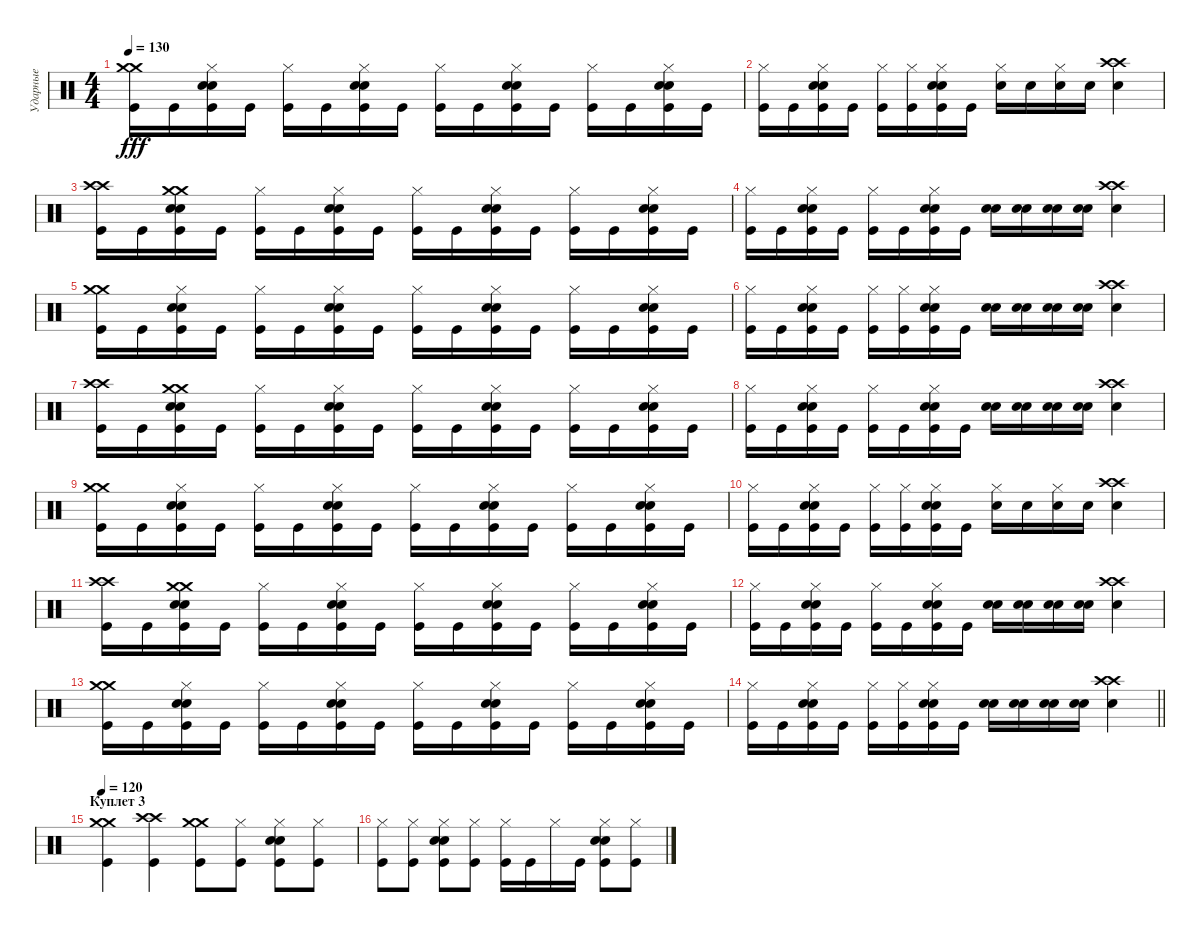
\track ("Ударные" "Ударные") {instrument percussion}
\staff {score}
\articulation defaults
\ts (4 4)
\tempo 130
\clef neutral
\ks c
("Crash medium (hit)" "Crash medium (hit)" "Kick (hit)").16{dy fff} "Kick (hit)".16 ("Snare (hit) 2" "Snare (hit) 2" "Hi-Hat (closed)" "Kick (hit)").16 "Kick (hit)".16 ("Hi-Hat (closed)" "Kick (hit)").16 "Kick (hit)".16 ("Hi-Hat (closed)" "Snare (hit) 2" "Snare (hit) 2" "Kick (hit)").16 "Kick (hit)".16 ("Hi-Hat (closed)" "Kick (hit)").16 "Kick (hit)".16 ("Hi-Hat (closed)" "Snare (hit) 2" "Snare (hit) 2" "Kick (hit)").16 "Kick (hit)".16 ("Hi-Hat (closed)" "Kick (hit)").16 "Kick (hit)".16 ("Hi-Hat (closed)" "Snare (hit) 2" "Snare (hit) 2" "Kick (hit)").16 "Kick (hit)".16 |
("Hi-Hat (closed)" "Kick (hit)").16 "Kick (hit)".16 ("Hi-Hat (closed)" "Snare (hit) 2" "Snare (hit) 2" "Kick (hit)").16 "Kick (hit)".16 ("Hi-Hat (closed)" "Kick (hit)").16 ("Hi-Hat (closed)" "Kick (hit)").16 ("Hi-Hat (closed)" "Snare (hit) 2" "Snare (hit) 2" "Kick (hit)").16 "Kick (hit)".16 ("Hi-Hat (closed)" "Electric Snare (hit)").16 "Electric Snare (hit)".16 ("Hi-Hat (closed)" "Electric Snare (hit)").16 "Electric Snare (hit)".16 ("Crash high (hit)" "Crash high (hit)" "Electric Snare (hit)").4 |
("Crash high (hit)" "Crash high (hit)" "Kick (hit)").16 "Kick (hit)".16 ("Snare (hit) 2" "Snare (hit) 2" "Crash medium (hit)" "Crash medium (hit)" "Kick (hit)").16 "Kick (hit)".16 ("Hi-Hat (closed)" "Kick (hit)").16 "Kick (hit)".16 ("Hi-Hat (closed)" "Snare (hit) 2" "Snare (hit) 2" "Kick (hit)").16 "Kick (hit)".16 ("Hi-Hat (closed)" "Kick (hit)").16 "Kick (hit)".16 ("Hi-Hat (closed)" "Snare (hit) 2" "Snare (hit) 2" "Kick (hit)").16 "Kick (hit)".16 ("Hi-Hat (closed)" "Kick (hit)").16 "Kick (hit)".16 ("Hi-Hat (closed)" "Snare (hit) 2" "Snare (hit) 2" "Kick (hit)").16 "Kick (hit)".16 |
("Hi-Hat (closed)" "Kick (hit)").16 "Kick (hit)".16 ("Hi-Hat (closed)" "Snare (hit) 2" "Snare (hit) 2" "Kick (hit)").16 "Kick (hit)".16 ("Hi-Hat (closed)" "Kick (hit)").16 "Kick (hit)".16 ("Hi-Hat (closed)" "Snare (hit) 2" "Snare (hit) 2" "Kick (hit)").16 "Kick (hit)".16 ("Snare (hit) 2" "Electric Snare (hit)").16 ("Snare (hit) 2" "Electric Snare (hit)").16 ("Snare (hit) 2" "Electric Snare (hit)").16 ("Snare (hit) 2" "Electric Snare (hit)").16 ("Crash high (hit)" "Crash high (hit)" "Electric Snare (hit)").4 |
("Crash medium (hit)" "Crash medium (hit)" "Kick (hit)").16 "Kick (hit)".16 ("Snare (hit) 2" "Snare (hit) 2" "Hi-Hat (closed)" "Kick (hit)").16 "Kick (hit)".16 ("Hi-Hat (closed)" "Kick (hit)").16 "Kick (hit)".16 ("Hi-Hat (closed)" "Snare (hit) 2" "Snare (hit) 2" "Kick (hit)").16 "Kick (hit)".16 ("Hi-Hat (closed)" "Kick (hit)").16 "Kick (hit)".16 ("Hi-Hat (closed)" "Snare (hit) 2" "Snare (hit) 2" "Kick (hit)").16 "Kick (hit)".16 ("Hi-Hat (closed)" "Kick (hit)").16 "Kick (hit)".16 ("Hi-Hat (closed)" "Snare (hit) 2" "Snare (hit) 2" "Kick (hit)").16 "Kick (hit)".16 |
("Hi-Hat (closed)" "Kick (hit)").16 "Kick (hit)".16 ("Hi-Hat (closed)" "Snare (hit) 2" "Snare (hit) 2" "Kick (hit)").16 "Kick (hit)".16 ("Hi-Hat (closed)" "Kick (hit)").16 ("Hi-Hat (closed)" "Kick (hit)").16 ("Hi-Hat (closed)" "Snare (hit) 2" "Snare (hit) 2" "Kick (hit)").16 "Kick (hit)".16 ("Snare (hit) 2" "Electric Snare (hit)").16 ("Snare (hit) 2" "Electric Snare (hit)").16 ("Snare (hit) 2" "Electric Snare (hit)").16 ("Snare (hit) 2" "Electric Snare (hit)").16 ("Crash high (hit)" "Crash high (hit)" "Electric Snare (hit)").4 |
("Crash high (hit)" "Crash high (hit)" "Kick (hit)").16 "Kick (hit)".16 ("Snare (hit) 2" "Snare (hit) 2" "Crash medium (hit)" "Crash medium (hit)" "Kick (hit)").16 "Kick (hit)".16 ("Hi-Hat (closed)" "Kick (hit)").16 "Kick (hit)".16 ("Hi-Hat (closed)" "Snare (hit) 2" "Snare (hit) 2" "Kick (hit)").16 "Kick (hit)".16 ("Hi-Hat (closed)" "Kick (hit)").16 "Kick (hit)".16 ("Hi-Hat (closed)" "Snare (hit) 2" "Snare (hit) 2" "Kick (hit)").16 "Kick (hit)".16 ("Hi-Hat (closed)" "Kick (hit)").16 "Kick (hit)".16 ("Hi-Hat (closed)" "Snare (hit) 2" "Snare (hit) 2" "Kick (hit)").16 "Kick (hit)".16 |
("Hi-Hat (closed)" "Kick (hit)").16 "Kick (hit)".16 ("Hi-Hat (closed)" "Snare (hit) 2" "Snare (hit) 2" "Kick (hit)").16 "Kick (hit)".16 ("Hi-Hat (closed)" "Kick (hit)").16 "Kick (hit)".16 ("Hi-Hat (closed)" "Snare (hit) 2" "Snare (hit) 2" "Kick (hit)").16 "Kick (hit)".16 ("Snare (hit) 2" "Electric Snare (hit)").16 ("Snare (hit) 2" "Electric Snare (hit)").16 ("Snare (hit) 2" "Electric Snare (hit)").16 ("Snare (hit) 2" "Electric Snare (hit)").16 ("Crash high (hit)" "Crash high (hit)" "Electric Snare (hit)").4 |
("Crash medium (hit)" "Crash medium (hit)" "Kick (hit)").16 "Kick (hit)".16 ("Snare (hit) 2" "Snare (hit) 2" "Hi-Hat (closed)" "Kick (hit)").16 "Kick (hit)".16 ("Hi-Hat (closed)" "Kick (hit)").16 "Kick (hit)".16 ("Hi-Hat (closed)" "Snare (hit) 2" "Snare (hit) 2" "Kick (hit)").16 "Kick (hit)".16 ("Hi-Hat (closed)" "Kick (hit)").16 "Kick (hit)".16 ("Hi-Hat (closed)" "Snare (hit) 2" "Snare (hit) 2" "Kick (hit)").16 "Kick (hit)".16 ("Hi-Hat (closed)" "Kick (hit)").16 "Kick (hit)".16 ("Hi-Hat (closed)" "Snare (hit) 2" "Snare (hit) 2" "Kick (hit)").16 "Kick (hit)".16 |
("Hi-Hat (closed)" "Kick (hit)").16 "Kick (hit)".16 ("Hi-Hat (closed)" "Snare (hit) 2" "Snare (hit) 2" "Kick (hit)").16 "Kick (hit)".16 ("Hi-Hat (closed)" "Kick (hit)").16 ("Hi-Hat (closed)" "Kick (hit)").16 ("Hi-Hat (closed)" "Snare (hit) 2" "Snare (hit) 2" "Kick (hit)").16 "Kick (hit)".16 ("Hi-Hat (closed)" "Electric Snare (hit)").16 "Electric Snare (hit)".16 ("Hi-Hat (closed)" "Electric Snare (hit)").16 "Electric Snare (hit)".16 ("Crash high (hit)" "Crash high (hit)" "Electric Snare (hit)").4 |
("Crash high (hit)" "Crash high (hit)" "Kick (hit)").16 "Kick (hit)".16 ("Snare (hit) 2" "Snare (hit) 2" "Crash medium (hit)" "Crash medium (hit)" "Kick (hit)").16 "Kick (hit)".16 ("Hi-Hat (closed)" "Kick (hit)").16 "Kick (hit)".16 ("Hi-Hat (closed)" "Snare (hit) 2" "Snare (hit) 2" "Kick (hit)").16 "Kick (hit)".16 ("Hi-Hat (closed)" "Kick (hit)").16 "Kick (hit)".16 ("Hi-Hat (closed)" "Snare (hit) 2" "Snare (hit) 2" "Kick (hit)").16 "Kick (hit)".16 ("Hi-Hat (closed)" "Kick (hit)").16 "Kick (hit)".16 ("Hi-Hat (closed)" "Snare (hit) 2" "Snare (hit) 2" "Kick (hit)").16 "Kick (hit)".16 |
("Hi-Hat (closed)" "Kick (hit)").16 "Kick (hit)".16 ("Hi-Hat (closed)" "Snare (hit) 2" "Snare (hit) 2" "Kick (hit)").16 "Kick (hit)".16 ("Hi-Hat (closed)" "Kick (hit)").16 "Kick (hit)".16 ("Hi-Hat (closed)" "Snare (hit) 2" "Snare (hit) 2" "Kick (hit)").16 "Kick (hit)".16 ("Snare (hit) 2" "Electric Snare (hit)").16 ("Snare (hit) 2" "Electric Snare (hit)").16 ("Snare (hit) 2" "Electric Snare (hit)").16 ("Snare (hit) 2" "Electric Snare (hit)").16 ("Crash high (hit)" "Crash high (hit)" "Electric Snare (hit)").4 |
("Crash medium (hit)" "Crash medium (hit)" "Kick (hit)").16 "Kick (hit)".16 ("Snare (hit) 2" "Snare (hit) 2" "Hi-Hat (closed)" "Kick (hit)").16 "Kick (hit)".16 ("Hi-Hat (closed)" "Kick (hit)").16 "Kick (hit)".16 ("Hi-Hat (closed)" "Snare (hit) 2" "Snare (hit) 2" "Kick (hit)").16 "Kick (hit)".16 ("Hi-Hat (closed)" "Kick (hit)").16 "Kick (hit)".16 ("Hi-Hat (closed)" "Snare (hit) 2" "Snare (hit) 2" "Kick (hit)").16 "Kick (hit)".16 ("Hi-Hat (closed)" "Kick (hit)").16 "Kick (hit)".16 ("Hi-Hat (closed)" "Snare (hit) 2" "Snare (hit) 2" "Kick (hit)").16 "Kick (hit)".16 |
\barLineRight lightlight
("Hi-Hat (closed)" "Kick (hit)").16 "Kick (hit)".16 ("Hi-Hat (closed)" "Snare (hit) 2" "Snare (hit) 2" "Kick (hit)").16 "Kick (hit)".16 ("Hi-Hat (closed)" "Kick (hit)").16 ("Hi-Hat (closed)" "Kick (hit)").16 ("Hi-Hat (closed)" "Snare (hit) 2" "Snare (hit) 2" "Kick (hit)").16 "Kick (hit)".16 ("Snare (hit) 2" "Electric Snare (hit)").16 ("Snare (hit) 2" "Electric Snare (hit)").16 ("Snare (hit) 2" "Electric Snare (hit)").16 ("Snare (hit) 2" "Electric Snare (hit)").16 ("Crash high (hit)" "Crash high (hit)" "Electric Snare (hit)").4 |
\section ("" "Куплет 3")
\tempo 120
("Crash medium (hit)" "Crash medium (hit)" "Kick (hit)").4 ("Crash high (hit)" "Crash high (hit)" "Kick (hit)").4 ("Crash medium (hit)" "Crash medium (hit)" "Kick (hit)").8 ("Hi-Hat (closed)" "Kick (hit)").8 ("Snare (hit) 2" "Electric Snare (hit)" "Kick (hit)" "Hi-Hat (closed)").8 ("Hi-Hat (closed)" "Kick (hit)").8 |
("Hi-Hat (closed)" "Kick (hit)").8 ("Hi-Hat (closed)" "Kick (hit)").8 ("Snare (hit) 2" "Electric Snare (hit)" "Kick (hit)" "Hi-Hat (closed)").8 ("Kick (hit)" "Hi-Hat (closed)").8 ("Kick (hit)" "Hi-Hat (closed)").16 "Kick (hit)".16 "Hi-Hat (closed)".16 "Kick (hit)".16 ("Snare (hit) 2" "Electric Snare (hit)" "Kick (hit)" "Hi-Hat (closed)").8 ("Kick (hit)" "Hi-Hat (closed)").8
